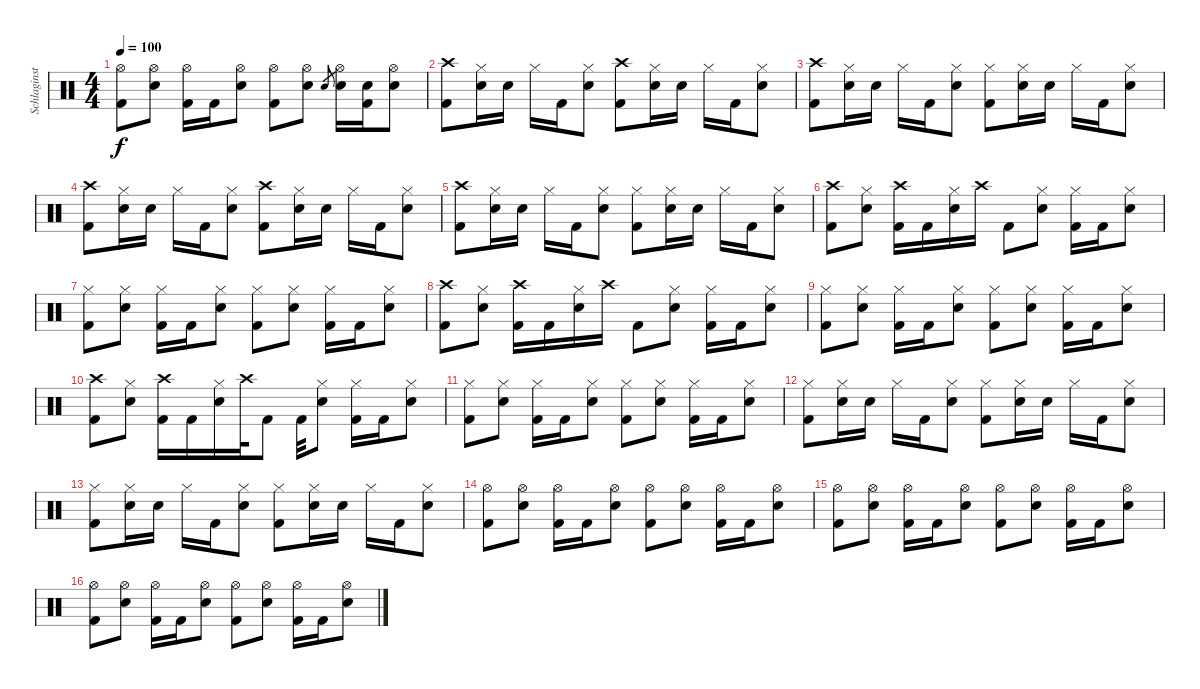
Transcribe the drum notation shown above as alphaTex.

\track ("Schlaginstrumente - Auswahl" "Schlaginst") {instrument percussion}
\staff {score}
\articulation defaults
\ts (4 4)
\tempo 100
\clef neutral
\ks c
("Hi-Hat (open)" "Kick (hit) 2").8{dy f} ("Hi-Hat (open)" "Snare (hit) 2").8 ("Hi-Hat (open)" "Kick (hit) 2").16 "Kick (hit) 2".16 ("Hi-Hat (open)" "Snare (hit) 2").8 ("Hi-Hat (open)" "Kick (hit) 2").8 ("Hi-Hat (open)" "Snare (hit) 2").8 "Snare (hit) 2".8{gr} ("Hi-Hat (open)" "Snare (hit) 2").16 ("Snare (hit) 2" "Kick (hit) 2").16 ("Hi-Hat (open)" "Snare (hit) 2").8 |
("Crash high (hit)" "Kick (hit) 2").8 ("Hi-Hat (closed)" "Snare (hit) 2").16 "Snare (hit) 2".16 "Hi-Hat (closed)".16 "Kick (hit) 2".16 ("Hi-Hat (closed)" "Snare (hit) 2").8 ("Crash high (hit)" "Kick (hit) 2").8 ("Hi-Hat (closed)" "Snare (hit) 2").16 "Snare (hit) 2".16 "Hi-Hat (closed)".16 "Kick (hit) 2".16 ("Hi-Hat (closed)" "Snare (hit) 2").8 |
("Crash high (hit)" "Kick (hit) 2").8 ("Hi-Hat (closed)" "Snare (hit) 2").16 "Snare (hit) 2".16 "Hi-Hat (closed)".16 "Kick (hit) 2".16 ("Hi-Hat (closed)" "Snare (hit) 2").8 ("Hi-Hat (closed)" "Kick (hit) 2").8 ("Hi-Hat (closed)" "Snare (hit) 2").16 "Snare (hit) 2".16 "Hi-Hat (closed)".16 "Kick (hit) 2".16 ("Hi-Hat (closed)" "Snare (hit) 2").8 |
("Crash high (hit)" "Kick (hit) 2").8 ("Hi-Hat (closed)" "Snare (hit) 2").16 "Snare (hit) 2".16 "Hi-Hat (closed)".16 "Kick (hit) 2".16 ("Hi-Hat (closed)" "Snare (hit) 2").8 ("Crash high (hit)" "Kick (hit) 2").8 ("Hi-Hat (closed)" "Snare (hit) 2").16 "Snare (hit) 2".16 "Hi-Hat (closed)".16 "Kick (hit) 2".16 ("Hi-Hat (closed)" "Snare (hit) 2").8 |
("Crash high (hit)" "Kick (hit) 2").8 ("Hi-Hat (closed)" "Snare (hit) 2").16 "Snare (hit) 2".16 "Hi-Hat (closed)".16 "Kick (hit) 2".16 ("Hi-Hat (closed)" "Snare (hit) 2").8 ("Hi-Hat (closed)" "Kick (hit) 2").8 ("Hi-Hat (closed)" "Snare (hit) 2").16 "Snare (hit) 2".16 "Hi-Hat (closed)".16 "Kick (hit) 2".16 ("Hi-Hat (closed)" "Snare (hit) 2").8 |
("Crash high (hit)" "Kick (hit) 2").8 ("Hi-Hat (closed)" "Snare (hit) 2").8 ("Crash high (hit)" "Kick (hit) 2").16 "Kick (hit) 2".16 ("Hi-Hat (closed)" "Snare (hit) 2").16 "Crash high (hit)".16 "Kick (hit) 2".8 ("Hi-Hat (closed)" "Snare (hit) 2").8 ("Hi-Hat (closed)" "Kick (hit) 2").16 "Kick (hit) 2".16 ("Hi-Hat (closed)" "Snare (hit) 2").8 |
("Hi-Hat (closed)" "Kick (hit) 2").8 ("Hi-Hat (closed)" "Snare (hit) 2").8 ("Hi-Hat (closed)" "Kick (hit) 2").16 "Kick (hit) 2".16 ("Hi-Hat (closed)" "Snare (hit) 2").8 ("Hi-Hat (closed)" "Kick (hit) 2").8 ("Hi-Hat (closed)" "Snare (hit) 2").8 ("Hi-Hat (closed)" "Kick (hit) 2").16 "Kick (hit) 2".16 ("Hi-Hat (closed)" "Snare (hit) 2").8 |
("Crash high (hit)" "Kick (hit) 2").8 ("Hi-Hat (closed)" "Snare (hit) 2").8 ("Crash high (hit)" "Kick (hit) 2").16 "Kick (hit) 2".16 ("Hi-Hat (closed)" "Snare (hit) 2").16 "Crash high (hit)".16 "Kick (hit) 2".8 ("Hi-Hat (closed)" "Snare (hit) 2").8 ("Hi-Hat (closed)" "Kick (hit) 2").16 "Kick (hit) 2".16 ("Hi-Hat (closed)" "Snare (hit) 2").8 |
("Hi-Hat (closed)" "Kick (hit) 2").8 ("Hi-Hat (closed)" "Snare (hit) 2").8 ("Hi-Hat (closed)" "Kick (hit) 2").16 "Kick (hit) 2".16 ("Hi-Hat (closed)" "Snare (hit) 2").8 ("Hi-Hat (closed)" "Kick (hit) 2").8 ("Hi-Hat (closed)" "Snare (hit) 2").8 ("Hi-Hat (closed)" "Kick (hit) 2").16 "Kick (hit) 2".16 ("Hi-Hat (closed)" "Snare (hit) 2").8 |
("Crash high (hit)" "Kick (hit) 2").8 ("Hi-Hat (closed)" "Snare (hit) 2").8 ("Crash high (hit)" "Kick (hit) 2").16 "Kick (hit) 2".16 ("Hi-Hat (closed)" "Snare (hit) 2").16 "Crash high (hit)".32 "Kick (hit) 2".8 "Kick (hit) 2".32 ("Hi-Hat (closed)" "Snare (hit) 2").8 ("Hi-Hat (closed)" "Kick (hit) 2").16 "Kick (hit) 2".16 ("Hi-Hat (closed)" "Snare (hit) 2").8 |
("Hi-Hat (closed)" "Kick (hit) 2").8 ("Hi-Hat (closed)" "Snare (hit) 2").8 ("Hi-Hat (closed)" "Kick (hit) 2").16 "Kick (hit) 2".16 ("Hi-Hat (closed)" "Snare (hit) 2").8 ("Hi-Hat (closed)" "Kick (hit) 2").8 ("Hi-Hat (closed)" "Snare (hit) 2").8 ("Hi-Hat (closed)" "Kick (hit) 2").16 "Kick (hit) 2".16 ("Hi-Hat (closed)" "Snare (hit) 2").8 |
("Hi-Hat (closed)" "Kick (hit) 2").8 ("Hi-Hat (closed)" "Snare (hit) 2").16 "Snare (hit) 2".16 "Hi-Hat (closed)".16 "Kick (hit) 2".16 ("Hi-Hat (closed)" "Snare (hit) 2").8 ("Hi-Hat (closed)" "Kick (hit) 2").8 ("Hi-Hat (closed)" "Snare (hit) 2").16 "Snare (hit) 2".16 "Hi-Hat (closed)".16 "Kick (hit) 2".16 ("Hi-Hat (closed)" "Snare (hit) 2").8 |
("Hi-Hat (closed)" "Kick (hit) 2").8 ("Hi-Hat (closed)" "Snare (hit) 2").16 "Snare (hit) 2".16 "Hi-Hat (closed)".16 "Kick (hit) 2".16 ("Hi-Hat (closed)" "Snare (hit) 2").8 ("Hi-Hat (closed)" "Kick (hit) 2").8 ("Hi-Hat (closed)" "Snare (hit) 2").16 "Snare (hit) 2".16 "Hi-Hat (closed)".16 "Kick (hit) 2".16 ("Hi-Hat (closed)" "Snare (hit) 2").8 |
("Hi-Hat (open)" "Kick (hit) 2").8 ("Hi-Hat (open)" "Snare (hit) 2").8 ("Hi-Hat (open)" "Kick (hit) 2").16 "Kick (hit) 2".16 ("Hi-Hat (open)" "Snare (hit) 2").8 ("Hi-Hat (open)" "Kick (hit) 2").8 ("Hi-Hat (open)" "Snare (hit) 2").8 ("Hi-Hat (open)" "Kick (hit) 2").16 "Kick (hit) 2".16 ("Hi-Hat (open)" "Snare (hit) 2").8 |
("Hi-Hat (open)" "Kick (hit) 2").8 ("Hi-Hat (open)" "Snare (hit) 2").8 ("Hi-Hat (open)" "Kick (hit) 2").16 "Kick (hit) 2".16 ("Hi-Hat (open)" "Snare (hit) 2").8 ("Hi-Hat (open)" "Kick (hit) 2").8 ("Hi-Hat (open)" "Snare (hit) 2").8 ("Hi-Hat (open)" "Kick (hit) 2").16 "Kick (hit) 2".16 ("Hi-Hat (open)" "Snare (hit) 2").8 |
("Hi-Hat (open)" "Kick (hit) 2").8 ("Hi-Hat (open)" "Snare (hit) 2").8 ("Hi-Hat (open)" "Kick (hit) 2").16 "Kick (hit) 2".16 ("Hi-Hat (open)" "Snare (hit) 2").8 ("Hi-Hat (open)" "Kick (hit) 2").8 ("Hi-Hat (open)" "Snare (hit) 2").8 ("Hi-Hat (open)" "Kick (hit) 2").16 "Kick (hit) 2".16 ("Hi-Hat (open)" "Snare (hit) 2").8
